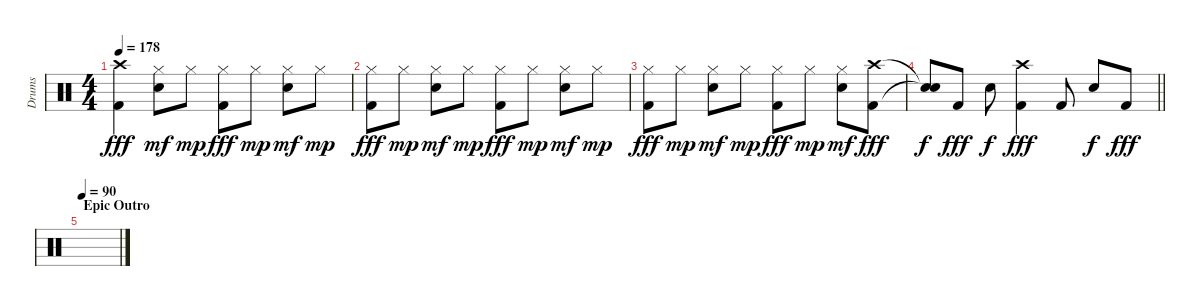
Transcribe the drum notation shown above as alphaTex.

\track ("Drums" "Drums") {instrument percussion}
\staff {score}
\articulation defaults
\ts (4 4)
\tempo 178
\clef neutral
\ks c
("Crash high (hit)" "Kick (hit) 2").4{dy fff} ("Hi-Hat (closed)" "Electric Snare (hit)").8{dy mf} "Hi-Hat (closed)".8{dy mp} ("Hi-Hat (closed)" "Kick (hit) 2").8{dy fff} "Hi-Hat (closed)".8{dy mp} ("Hi-Hat (closed)" "Electric Snare (hit)").8{dy mf} "Hi-Hat (closed)".8{dy mp} |
("Hi-Hat (closed)" "Kick (hit) 2").8{dy fff} "Hi-Hat (closed)".8{dy mp} ("Hi-Hat (closed)" "Electric Snare (hit)").8{dy mf} "Hi-Hat (closed)".8{dy mp} ("Hi-Hat (closed)" "Kick (hit) 2").8{dy fff} "Hi-Hat (closed)".8{dy mp} ("Hi-Hat (closed)" "Electric Snare (hit)").8{dy mf} "Hi-Hat (closed)".8{dy mp} |
("Hi-Hat (closed)" "Kick (hit) 2").8{dy fff} "Hi-Hat (closed)".8{dy mp} ("Hi-Hat (closed)" "Electric Snare (hit)").8{dy mf} "Hi-Hat (closed)".8{dy mp} ("Hi-Hat (closed)" "Kick (hit) 2").8{dy fff} "Hi-Hat (closed)".8{dy mp} ("Hi-Hat (closed)" "Electric Snare (hit)").8{dy mf} ("Crash high (hit)" "Kick (hit) 2").8{dy fff} |
\barLineRight lightlight
("Snare (hit)"{t} "Snare (hit)"{t}).8{dy f} "Kick (hit) 2".8{dy fff} "Electric Snare (hit)".8{dy f} ("Crash high (hit)" "Kick (hit) 2").4{dy fff} "Kick (hit) 2".8 "Electric Snare (hit)".8{dy f} "Kick (hit) 2".8{dy fff} |
\section ("" "Epic Outro")
\tempo 90
